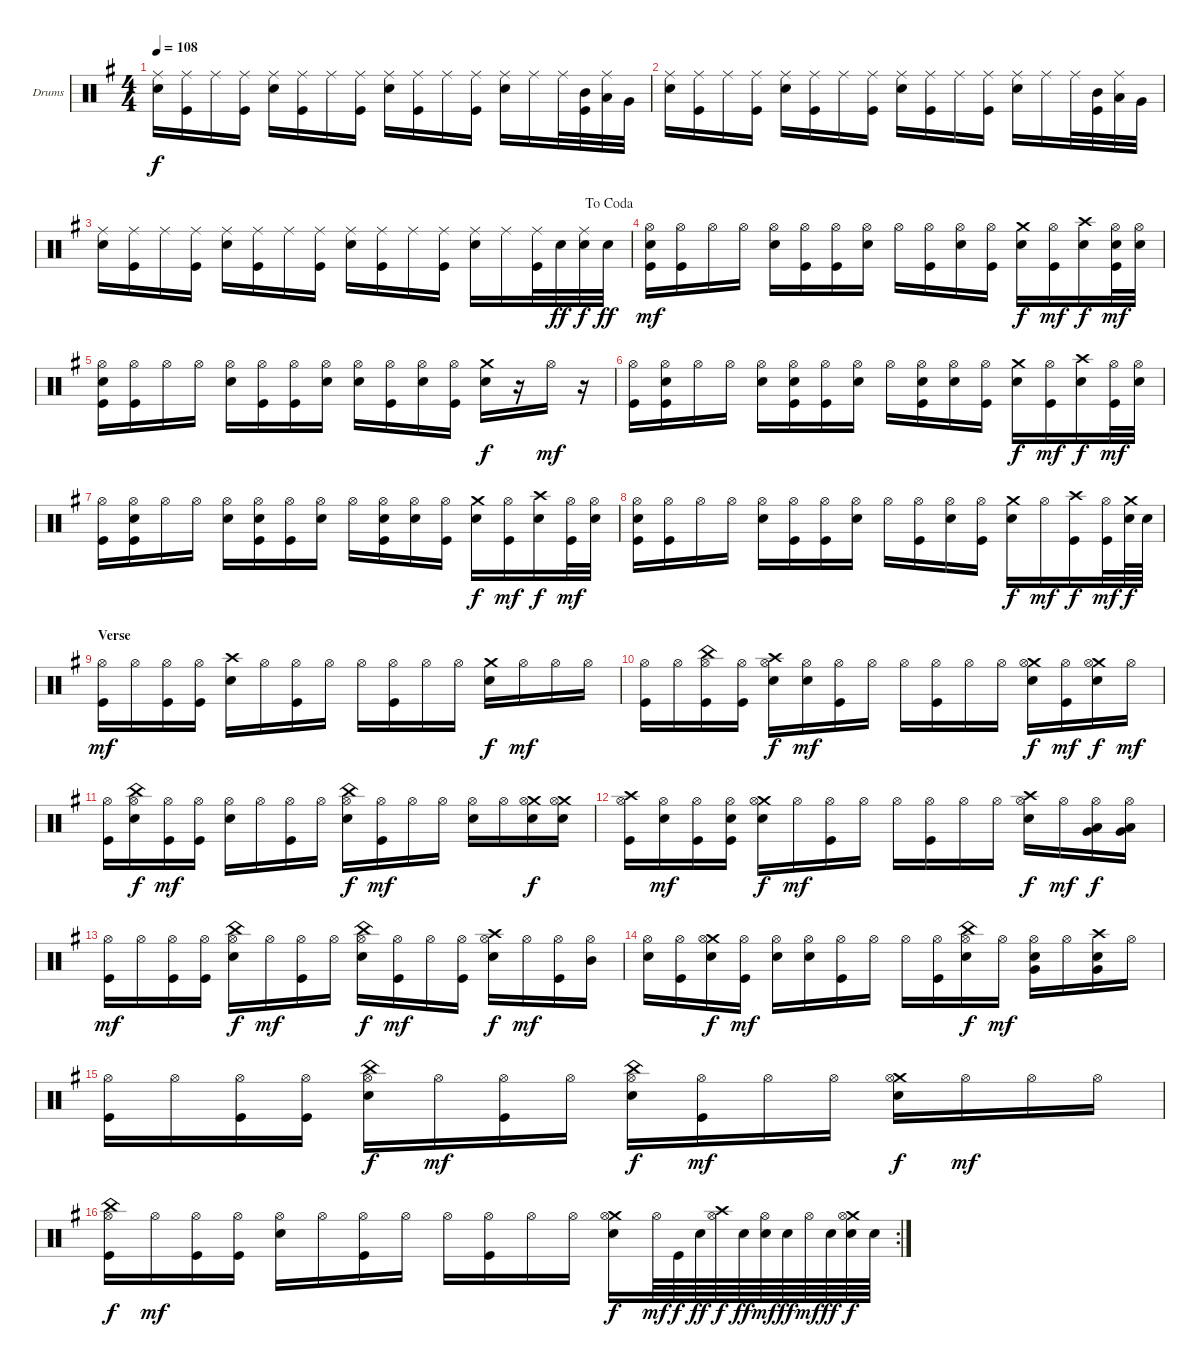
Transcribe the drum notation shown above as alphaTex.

\defaultSystemsLayout 4
\bracketExtendMode groupsimilarinstruments
\firstSystemTrackNameOrientation horizontal
\otherSystemsTrackNameOrientation horizontal
\track ("Drumkit" "Drums") {instrument percussion}
\staff {score}
\articulation defaults
\ts (4 4)
\tempo 108
\clef neutral
\scale
1.04288
\ks g
("Ride (middle)" "Snare (hit) 2").16{dy f} ("Ride (middle)" "Kick (hit)").16 "Ride (middle)".16 ("Ride (middle)" "Kick (hit)").16 ("Ride (middle)" "Snare (hit) 2").16 ("Ride (middle)" "Kick (hit)").16 "Ride (middle)".16 ("Ride (middle)" "Kick (hit)").16 ("Ride (middle)" "Snare (hit) 2").16 ("Ride (middle)" "Kick (hit)").16 "Ride (middle)".16 ("Ride (middle)" "Kick (hit)").16 ("Ride (middle)" "Snare (hit) 2").16 "Ride (middle)".16 "Ride (middle)".32 ("Mid Tom (hit)" "Kick (hit)").32 ("Low Tom (hit)" "Ride (middle)").32 "Very Low Tom (hit)".32 |
\scale
0.957125 ("Ride (middle)" "Snare (hit) 2").16 ("Ride (middle)" "Kick (hit)").16 "Ride (middle)".16 ("Ride (middle)" "Kick (hit)").16 ("Ride (middle)" "Snare (hit) 2").16 ("Ride (middle)" "Kick (hit)").16 "Ride (middle)".16 ("Ride (middle)" "Kick (hit)").16 ("Ride (middle)" "Snare (hit) 2").16 ("Ride (middle)" "Kick (hit)").16 "Ride (middle)".16 ("Ride (middle)" "Kick (hit)").16 ("Ride (middle)" "Snare (hit) 2").16 "Ride (middle)".16 "Ride (middle)".32 ("Mid Tom (hit)" "Kick (hit)").32 ("Low Tom (hit)" "Ride (middle)").32 "Very Low Tom (hit)".32 |
\jump dacoda
\scale
1.04288 ("Ride (middle)" "Snare (hit) 2").16 ("Ride (middle)" "Kick (hit)").16 "Ride (middle)".16 ("Ride (middle)" "Kick (hit)").16 ("Ride (middle)" "Snare (hit) 2").16 ("Ride (middle)" "Kick (hit)").16 "Ride (middle)".16 ("Ride (middle)" "Kick (hit)").16 ("Ride (middle)" "Snare (hit) 2").16 ("Ride (middle)" "Kick (hit)").16 "Ride (middle)".16 ("Ride (middle)" "Kick (hit)").16 ("Ride (middle)" "Snare (hit) 2").16 "Ride (middle)".16 ("Ride (middle)" "Kick (hit)").32 "Snare (hit) 2".32{dy ff} ("Ride (middle)" "Snare (hit) 2").32{dy f} "Snare (hit) 2".32{dy ff} |
\scale
0.957125 ("Hi-Hat (open)" "Snare (hit) 2" "Kick (hit)").16{dy mf} ("Hi-Hat (open)" "Kick (hit)").16 "Hi-Hat (open)".16 "Hi-Hat (open)".16 ("Hi-Hat (open)" "Snare (hit) 2").16 ("Hi-Hat (open)" "Kick (hit)").16 ("Hi-Hat (open)" "Kick (hit)").16 ("Hi-Hat (open)" "Snare (hit) 2").16 "Hi-Hat (open)".16 ("Hi-Hat (open)" "Kick (hit)").16 ("Hi-Hat (open)" "Snare (hit) 2").16 ("Hi-Hat (open)" "Kick (hit)").16 ("Crash medium (hit)" "Snare (hit) 2").16{dy f} ("Hi-Hat (open)" "Kick (hit)").16{dy mf} ("Crash high (hit)" "Snare (hit) 2").16{dy f} ("Hi-Hat (open)" "Snare (hit) 2" "Kick (hit)").32{dy mf} ("Hi-Hat (open)" "Snare (hit) 2").32 |
\scale
1.04288 ("Hi-Hat (open)" "Snare (hit) 2" "Kick (hit)").16 ("Hi-Hat (open)" "Kick (hit)").16 "Hi-Hat (open)".16 "Hi-Hat (open)".16 ("Hi-Hat (open)" "Snare (hit) 2").16 ("Hi-Hat (open)" "Kick (hit)").16 ("Hi-Hat (open)" "Kick (hit)").16 ("Hi-Hat (open)" "Snare (hit) 2").16 ("Hi-Hat (open)" "Snare (hit) 2").16 ("Hi-Hat (open)" "Kick (hit)").16 ("Hi-Hat (open)" "Snare (hit) 2").16 ("Hi-Hat (open)" "Kick (hit)").16 ("Crash medium (hit)" "Snare (hit) 2").16{dy f} r.16 "Hi-Hat (open)".16{dy mf} r.16 |
\scale
0.957125 ("Hi-Hat (open)" "Kick (hit)").16 ("Hi-Hat (open)" "Snare (hit) 2" "Kick (hit)").16 "Hi-Hat (open)".16 "Hi-Hat (open)".16 ("Hi-Hat (open)" "Snare (hit) 2").16 ("Hi-Hat (open)" "Snare (hit) 2" "Kick (hit)").16 ("Hi-Hat (open)" "Kick (hit)").16 ("Hi-Hat (open)" "Snare (hit) 2").16 "Hi-Hat (open)".16 ("Hi-Hat (open)" "Snare (hit) 2" "Kick (hit)").16 ("Hi-Hat (open)" "Snare (hit) 2").16 ("Hi-Hat (open)" "Kick (hit)").16 ("Crash medium (hit)" "Snare (hit) 2").16{dy f} ("Hi-Hat (open)" "Kick (hit)").16{dy mf} ("Crash high (hit)" "Snare (hit) 2").16{dy f} ("Hi-Hat (open)" "Kick (hit)").32{dy mf} ("Hi-Hat (open)" "Snare (hit) 2").32 |
\scale
1.04288 ("Hi-Hat (open)" "Kick (hit)").16 ("Hi-Hat (open)" "Snare (hit) 2" "Kick (hit)").16 "Hi-Hat (open)".16 "Hi-Hat (open)".16 ("Hi-Hat (open)" "Snare (hit) 2").16 ("Hi-Hat (open)" "Snare (hit) 2" "Kick (hit)").16 ("Hi-Hat (open)" "Kick (hit)").16 ("Hi-Hat (open)" "Snare (hit) 2").16 "Hi-Hat (open)".16 ("Hi-Hat (open)" "Snare (hit) 2" "Kick (hit)").16 ("Hi-Hat (open)" "Snare (hit) 2").16 ("Hi-Hat (open)" "Kick (hit)").16 ("Crash medium (hit)" "Snare (hit) 2").16{dy f} ("Hi-Hat (open)" "Kick (hit)").16{dy mf} ("Crash high (hit)" "Snare (hit) 2").16{dy f} ("Hi-Hat (open)" "Kick (hit)").32{dy mf} ("Hi-Hat (open)" "Snare (hit) 2").32 |
\scale
0.957125 ("Hi-Hat (open)" "Snare (hit) 2" "Kick (hit)").16 ("Hi-Hat (open)" "Kick (hit)").16 "Hi-Hat (open)".16 "Hi-Hat (open)".16 ("Hi-Hat (open)" "Snare (hit) 2").16 ("Hi-Hat (open)" "Kick (hit)").16 ("Hi-Hat (open)" "Kick (hit)").16 ("Hi-Hat (open)" "Snare (hit) 2").16 "Hi-Hat (open)".16 ("Hi-Hat (open)" "Kick (hit)").16 ("Hi-Hat (open)" "Snare (hit) 2").16 ("Hi-Hat (open)" "Kick (hit)").16 ("Crash medium (hit)" "Snare (hit) 2").16{dy f} "Hi-Hat (open)".16{dy mf} ("Crash high (hit)" "Kick (hit)").16{dy f} ("Hi-Hat (open)" "Kick (hit)").32{dy mf} ("Crash medium (hit)" "Snare (hit) 2").64{dy f} "Snare (hit) 2".64 |
\section ("" "Verse")
\scale
1.04288 ("Hi-Hat (open)" "Kick (hit)").16{dy mf} "Hi-Hat (open)".16 ("Hi-Hat (open)" "Kick (hit)").16 ("Hi-Hat (open)" "Kick (hit)").16 ("Crash high (hit)" "Snare (hit) 2").16 "Hi-Hat (open)".16 ("Hi-Hat (open)" "Kick (hit)").16 "Hi-Hat (open)".16 "Hi-Hat (open)".16 ("Hi-Hat (open)" "Kick (hit)").16 "Hi-Hat (open)".16 "Hi-Hat (open)".16 ("Crash medium (hit)" "Snare (hit) 2").16{dy f} "Hi-Hat (open)".16{dy mf} "Hi-Hat (open)".16 "Hi-Hat (open)".16 |
\scale
0.957125 ("Hi-Hat (open)" "Kick (hit)").16 "Hi-Hat (open)".16 ("China (hit)" "Hi-Hat (open)" "Kick (hit)").16 ("Hi-Hat (open)" "Kick (hit)").16 ("Crash high (hit)" "Hi-Hat (open)" "Snare (hit) 2").16{dy f} ("Hi-Hat (open)" "Snare (hit) 2").16{dy mf} ("Hi-Hat (open)" "Kick (hit)").16 "Hi-Hat (open)".16 "Hi-Hat (open)".16 ("Hi-Hat (open)" "Kick (hit)").16 "Hi-Hat (open)".16 "Hi-Hat (open)".16 ("Crash medium (hit)" "Hi-Hat (open)" "Snare (hit) 2").16{dy f} ("Hi-Hat (open)" "Kick (hit)").16{dy mf} ("Crash medium (hit)" "Hi-Hat (open)" "Snare (hit) 2").16{dy f} "Hi-Hat (open)".16{dy mf} |
\scale
1.04288 ("Hi-Hat (open)" "Kick (hit)").16 ("China (hit)" "Hi-Hat (open)" "Snare (hit) 2").16{dy f} ("Hi-Hat (open)" "Kick (hit)").16{dy mf} ("Hi-Hat (open)" "Kick (hit)").16 ("Hi-Hat (open)" "Snare (hit) 2").16 "Hi-Hat (open)".16 ("Hi-Hat (open)" "Kick (hit)").16 "Hi-Hat (open)".16 ("China (hit)" "Hi-Hat (open)" "Snare (hit) 2").16{dy f} ("Hi-Hat (open)" "Kick (hit)").16{dy mf} "Hi-Hat (open)".16 "Hi-Hat (open)".16 ("Hi-Hat (open)" "Snare (hit) 2").16 "Hi-Hat (open)".16 ("Crash medium (hit)" "Hi-Hat (open)" "Snare (hit) 2").16{dy f} ("Crash medium (hit)" "Hi-Hat (open)" "Snare (hit) 2").16 |
\scale
0.957125 ("Crash high (hit)" "Hi-Hat (open)" "Kick (hit)").16 ("Hi-Hat (open)" "Snare (hit) 2").16{dy mf} ("Hi-Hat (open)" "Kick (hit)").16 ("Hi-Hat (open)" "Snare (hit) 2" "Kick (hit)").16 ("Crash medium (hit)" "Hi-Hat (open)" "Snare (hit) 2").16{dy f} "Hi-Hat (open)".16{dy mf} ("Hi-Hat (open)" "Kick (hit)").16 "Hi-Hat (open)".16 "Hi-Hat (open)".16 ("Hi-Hat (open)" "Kick (hit)").16 "Hi-Hat (open)".16 "Hi-Hat (open)".16 ("Crash high (hit)" "Hi-Hat (open)" "Snare (hit) 2").16{dy f} "Hi-Hat (open)".16{dy mf} ("Low Tom (hit)" "Hi-Hat (open)" "Very Low Tom (hit)").16{dy f} ("Low Tom (hit)" "Hi-Hat (open)" "Very Low Tom (hit)").16 |
\scale
1.04288 ("Hi-Hat (open)" "Kick (hit)").16{dy mf} "Hi-Hat (open)".16 ("Hi-Hat (open)" "Kick (hit)").16 ("Hi-Hat (open)" "Kick (hit)").16 ("China (hit)" "Hi-Hat (open)" "Snare (hit) 2").16{dy f} "Hi-Hat (open)".16{dy mf} ("Hi-Hat (open)" "Kick (hit)").16 "Hi-Hat (open)".16 ("China (hit)" "Hi-Hat (open)" "Snare (hit) 2").16{dy f} ("Hi-Hat (open)" "Kick (hit)").16{dy mf} "Hi-Hat (open)".16 ("Hi-Hat (open)" "Kick (hit)").16 ("Crash high (hit)" "Hi-Hat (open)" "Snare (hit) 2").16{dy f} "Hi-Hat (open)".16{dy mf} ("Hi-Hat (open)" "Kick (hit)").16 ("Hi-Hat (open)" "Mid Tom (hit)").16 |
\scale
0.957125 ("Hi-Hat (open)" "Snare (hit) 2").16 ("Hi-Hat (open)" "Kick (hit)").16 ("Crash medium (hit)" "Hi-Hat (open)" "Snare (hit) 2").16{dy f} ("Hi-Hat (open)" "Kick (hit)").16{dy mf} ("Hi-Hat (open)" "Snare (hit) 2").16 ("Hi-Hat (open)" "Snare (hit) 2").16 ("Hi-Hat (open)" "Kick (hit)").16 "Hi-Hat (open)".16 "Hi-Hat (open)".16 ("Hi-Hat (open)" "Kick (hit)").16 ("China (hit)" "Hi-Hat (open)" "Snare (hit) 2").16{dy f} "Hi-Hat (open)".16{dy mf} ("Hi-Hat (open)" "Very Low Tom (hit)" "Snare (hit) 2").16 "Hi-Hat (open)".16 ("Crash high (hit)" "Very Low Tom (hit)" "Snare (hit) 2").16 "Hi-Hat (open)".16 |
\scale
1.04288 ("Hi-Hat (open)" "Kick (hit)").16 "Hi-Hat (open)".16 ("Hi-Hat (open)" "Kick (hit)").16 ("Hi-Hat (open)" "Kick (hit)").16 ("China (hit)" "Hi-Hat (open)" "Snare (hit) 2").16{dy f} "Hi-Hat (open)".16{dy mf} ("Hi-Hat (open)" "Kick (hit)").16 "Hi-Hat (open)".16 ("China (hit)" "Hi-Hat (open)" "Snare (hit) 2").16{dy f} ("Hi-Hat (open)" "Kick (hit)").16{dy mf} "Hi-Hat (open)".16 "Hi-Hat (open)".16 ("Crash medium (hit)" "Hi-Hat (open)" "Snare (hit) 2").16{dy f} "Hi-Hat (open)".16{dy mf} "Hi-Hat (open)".16 "Hi-Hat (open)".16 |
\rc 2
\scale
0.957125 ("China (hit)" "Hi-Hat (open)" "Kick (hit)").16{dy f} "Hi-Hat (open)".16{dy mf} ("Hi-Hat (open)" "Kick (hit)").16 ("Hi-Hat (open)" "Kick (hit)").16 ("Hi-Hat (open)" "Snare (hit) 2").16 "Hi-Hat (open)".16 ("Hi-Hat (open)" "Kick (hit)").16 "Hi-Hat (open)".16 "Hi-Hat (open)".16 ("Hi-Hat (open)" "Kick (hit)").16 "Hi-Hat (open)".16 "Hi-Hat (open)".16 ("Crash medium (hit)" "Hi-Hat (open)" "Snare (hit) 2").16{dy f} "Hi-Hat (open)".64{dy mf} "Kick (hit)".64{dy f} "Snare (hit) 2".64{dy ff} ("Crash high (hit)" "Hi-Hat (open)").64{dy f} "Snare (hit) 2".64{dy ff} ("Hi-Hat (open)" "Snare (hit) 2").64{dy mf} "Snare (hit) 2".64{dy ff} "Hi-Hat (open)".64{dy mf} "Snare (hit) 2".64{dy ff} ("Crash medium (hit)" "Hi-Hat (open)" "Snare (hit) 2").64{dy f} "Snare (hit) 2".64
